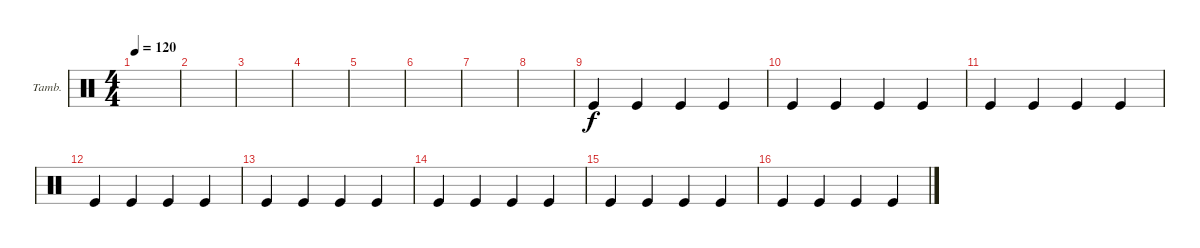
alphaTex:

\defaultSystemsLayout 4
\bracketExtendMode groupsimilarinstruments
\firstSystemTrackNameOrientation horizontal
\otherSystemsTrackNameOrientation horizontal
\track ("Tambourine" "Tamb.") {instrument percussion}
\staff {score}
\articulation defaults
\ts (4 4)
\tempo 120
\clef neutral
\ks c
|
|
|
|
|
|
|
|
"Kick (hit)".4 "Kick (hit)".4 "Kick (hit)".4 "Kick (hit)".4 |
"Kick (hit)".4 "Kick (hit)".4 "Kick (hit)".4 "Kick (hit)".4 |
"Kick (hit)".4 "Kick (hit)".4 "Kick (hit)".4 "Kick (hit)".4 |
"Kick (hit)".4 "Kick (hit)".4 "Kick (hit)".4 "Kick (hit)".4 |
"Kick (hit)".4 "Kick (hit)".4 "Kick (hit)".4 "Kick (hit)".4 |
"Kick (hit)".4 "Kick (hit)".4 "Kick (hit)".4 "Kick (hit)".4 |
"Kick (hit)".4 "Kick (hit)".4 "Kick (hit)".4 "Kick (hit)".4 |
"Kick (hit)".4 "Kick (hit)".4 "Kick (hit)".4 "Kick (hit)".4
